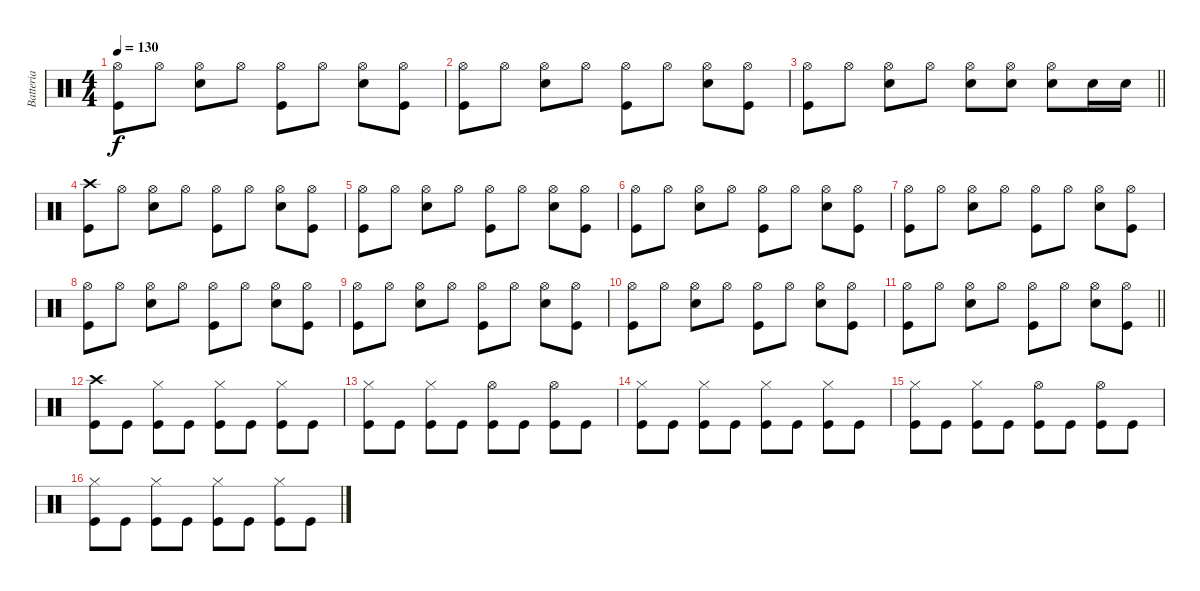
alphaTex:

\track ("Batteria" "Batteria") {instrument percussion}
\staff {score}
\articulation defaults
\ts (4 4)
\tempo 130
\clef neutral
\ks c
("Kick (hit)" "Hi-Hat (open)").8{dy f} "Hi-Hat (open)".8 ("Snare (hit) 2" "Hi-Hat (open)").8 "Hi-Hat (open)".8 ("Kick (hit)" "Hi-Hat (open)").8 "Hi-Hat (open)".8 ("Snare (hit) 2" "Hi-Hat (open)").8 ("Kick (hit)" "Hi-Hat (open)").8 |
("Kick (hit)" "Hi-Hat (open)").8 "Hi-Hat (open)".8 ("Snare (hit) 2" "Hi-Hat (open)").8 "Hi-Hat (open)".8 ("Kick (hit)" "Hi-Hat (open)").8 "Hi-Hat (open)".8 ("Snare (hit) 2" "Hi-Hat (open)").8 ("Kick (hit)" "Hi-Hat (open)").8 |
\barLineRight lightlight
("Kick (hit)" "Hi-Hat (open)").8 "Hi-Hat (open)".8 ("Snare (hit) 2" "Hi-Hat (open)").8 "Hi-Hat (open)".8 ("Snare (hit) 2" "Hi-Hat (open)").8 ("Snare (hit) 2" "Hi-Hat (open)").8 ("Snare (hit) 2" "Hi-Hat (open)").8 "Snare (hit) 2".16 "Snare (hit) 2".16 |
("Kick (hit)" "Crash high (hit)").8 "Hi-Hat (open)".8 ("Snare (hit) 2" "Hi-Hat (open)").8 "Hi-Hat (open)".8 ("Kick (hit)" "Hi-Hat (open)").8 "Hi-Hat (open)".8 ("Snare (hit) 2" "Hi-Hat (open)").8 ("Kick (hit)" "Hi-Hat (open)").8 |
("Kick (hit)" "Hi-Hat (open)").8 "Hi-Hat (open)".8 ("Snare (hit) 2" "Hi-Hat (open)").8 "Hi-Hat (open)".8 ("Kick (hit)" "Hi-Hat (open)").8 "Hi-Hat (open)".8 ("Snare (hit) 2" "Hi-Hat (open)").8 ("Kick (hit)" "Hi-Hat (open)").8 |
("Kick (hit)" "Hi-Hat (open)").8 "Hi-Hat (open)".8 ("Snare (hit) 2" "Hi-Hat (open)").8 "Hi-Hat (open)".8 ("Kick (hit)" "Hi-Hat (open)").8 "Hi-Hat (open)".8 ("Snare (hit) 2" "Hi-Hat (open)").8 ("Kick (hit)" "Hi-Hat (open)").8 |
("Kick (hit)" "Hi-Hat (open)").8 "Hi-Hat (open)".8 ("Snare (hit) 2" "Hi-Hat (open)").8 "Hi-Hat (open)".8 ("Kick (hit)" "Hi-Hat (open)").8 "Hi-Hat (open)".8 ("Snare (hit) 2" "Hi-Hat (open)").8 ("Kick (hit)" "Hi-Hat (open)").8 |
("Kick (hit)" "Hi-Hat (open)").8 "Hi-Hat (open)".8 ("Snare (hit) 2" "Hi-Hat (open)").8 "Hi-Hat (open)".8 ("Kick (hit)" "Hi-Hat (open)").8 "Hi-Hat (open)".8 ("Snare (hit) 2" "Hi-Hat (open)").8 ("Kick (hit)" "Hi-Hat (open)").8 |
("Kick (hit)" "Hi-Hat (open)").8 "Hi-Hat (open)".8 ("Snare (hit) 2" "Hi-Hat (open)").8 "Hi-Hat (open)".8 ("Kick (hit)" "Hi-Hat (open)").8 "Hi-Hat (open)".8 ("Snare (hit) 2" "Hi-Hat (open)").8 ("Kick (hit)" "Hi-Hat (open)").8 |
("Kick (hit)" "Hi-Hat (open)").8 "Hi-Hat (open)".8 ("Snare (hit) 2" "Hi-Hat (open)").8 "Hi-Hat (open)".8 ("Kick (hit)" "Hi-Hat (open)").8 "Hi-Hat (open)".8 ("Snare (hit) 2" "Hi-Hat (open)").8 ("Kick (hit)" "Hi-Hat (open)").8 |
\barLineRight lightlight
("Kick (hit)" "Hi-Hat (open)").8 "Hi-Hat (open)".8 ("Snare (hit) 2" "Hi-Hat (open)").8 "Hi-Hat (open)".8 ("Kick (hit)" "Hi-Hat (open)").8 "Hi-Hat (open)".8 ("Snare (hit) 2" "Hi-Hat (open)").8 ("Kick (hit)" "Hi-Hat (open)").8 |
("Crash high (hit)" "Kick (hit)").8 "Kick (hit)".8 ("Kick (hit)" "Hi-Hat (closed)").8 "Kick (hit)".8 ("Kick (hit)" "Hi-Hat (closed)").8 "Kick (hit)".8 ("Kick (hit)" "Hi-Hat (closed)").8 "Kick (hit)".8 |
("Hi-Hat (closed)" "Kick (hit)").8 "Kick (hit)".8 ("Kick (hit)" "Hi-Hat (closed)").8 "Kick (hit)".8 ("Kick (hit)" "Hi-Hat (open)").8 "Kick (hit)".8 ("Kick (hit)" "Hi-Hat (open)").8 "Kick (hit)".8 |
("Hi-Hat (closed)" "Kick (hit)").8 "Kick (hit)".8 ("Kick (hit)" "Hi-Hat (closed)").8 "Kick (hit)".8 ("Kick (hit)" "Hi-Hat (closed)").8 "Kick (hit)".8 ("Kick (hit)" "Hi-Hat (closed)").8 "Kick (hit)".8 |
("Hi-Hat (closed)" "Kick (hit)").8 "Kick (hit)".8 ("Kick (hit)" "Hi-Hat (closed)").8 "Kick (hit)".8 ("Kick (hit)" "Hi-Hat (open)").8 "Kick (hit)".8 ("Kick (hit)" "Hi-Hat (open)").8 "Kick (hit)".8 |
("Hi-Hat (closed)" "Kick (hit)").8 "Kick (hit)".8 ("Kick (hit)" "Hi-Hat (closed)").8 "Kick (hit)".8 ("Kick (hit)" "Hi-Hat (closed)").8 "Kick (hit)".8 ("Kick (hit)" "Hi-Hat (closed)").8 "Kick (hit)".8
